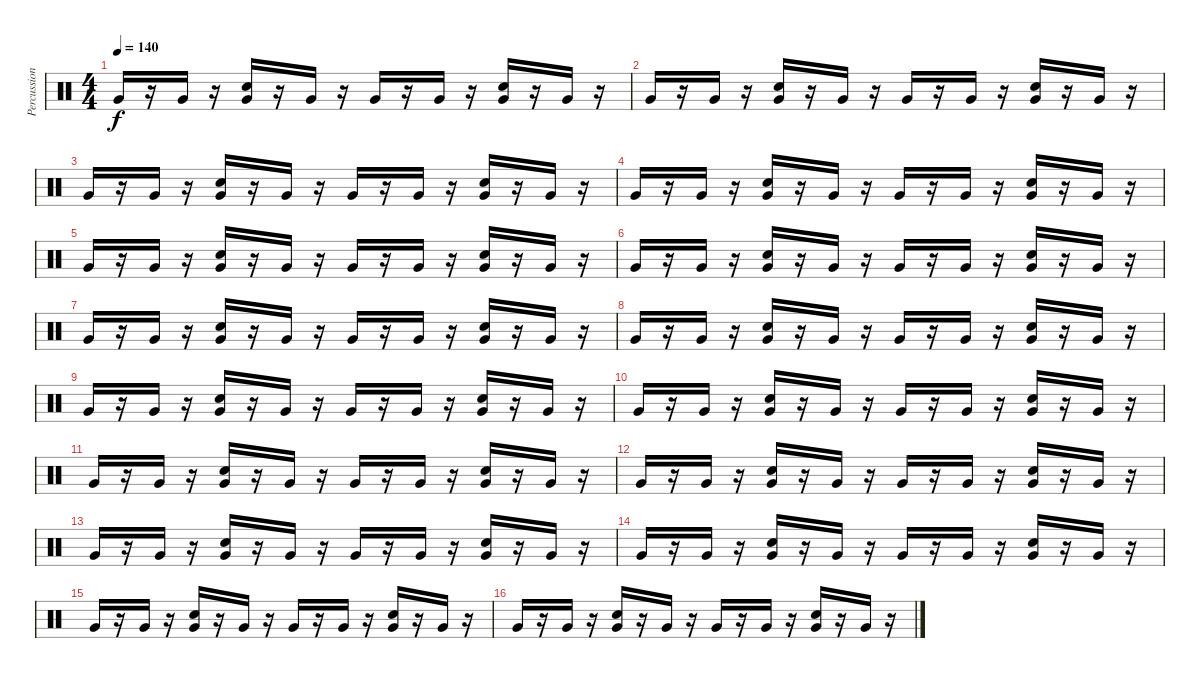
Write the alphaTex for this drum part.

\track ("Percussions" "Percussion") {instrument percussion}
\staff {score}
\articulation defaults
\ts (4 4)
\tempo 140
\clef neutral
\ks c "Very Low Tom (hit)".16{dy f}
r.16 "Very Low Tom (hit)".16 r.16 ("Very Low Tom (hit)" "Electric Snare (hit)").16 r.16 "Very Low Tom (hit)".16 r.16 "Very Low Tom (hit)".16 r.16 "Very Low Tom (hit)".16 r.16 ("Very Low Tom (hit)" "Electric Snare (hit)").16 r.16 "Very Low Tom (hit)".16 r.16 |
"Very Low Tom (hit)".16 r.16 "Very Low Tom (hit)".16 r.16 ("Very Low Tom (hit)" "Electric Snare (hit)").16 r.16 "Very Low Tom (hit)".16 r.16 "Very Low Tom (hit)".16 r.16 "Very Low Tom (hit)".16 r.16 ("Very Low Tom (hit)" "Electric Snare (hit)").16 r.16 "Very Low Tom (hit)".16 r.16 |
"Very Low Tom (hit)".16 r.16 "Very Low Tom (hit)".16 r.16 ("Very Low Tom (hit)" "Electric Snare (hit)").16 r.16 "Very Low Tom (hit)".16 r.16 "Very Low Tom (hit)".16 r.16 "Very Low Tom (hit)".16 r.16 ("Very Low Tom (hit)" "Electric Snare (hit)").16 r.16 "Very Low Tom (hit)".16 r.16 |
"Very Low Tom (hit)".16 r.16 "Very Low Tom (hit)".16 r.16 ("Very Low Tom (hit)" "Electric Snare (hit)").16 r.16 "Very Low Tom (hit)".16 r.16 "Very Low Tom (hit)".16 r.16 "Very Low Tom (hit)".16 r.16 ("Very Low Tom (hit)" "Electric Snare (hit)").16 r.16 "Very Low Tom (hit)".16 r.16 |
"Very Low Tom (hit)".16 r.16 "Very Low Tom (hit)".16 r.16 ("Very Low Tom (hit)" "Electric Snare (hit)").16 r.16 "Very Low Tom (hit)".16 r.16 "Very Low Tom (hit)".16 r.16 "Very Low Tom (hit)".16 r.16 ("Very Low Tom (hit)" "Electric Snare (hit)").16 r.16 "Very Low Tom (hit)".16 r.16 |
"Very Low Tom (hit)".16 r.16 "Very Low Tom (hit)".16 r.16 ("Very Low Tom (hit)" "Electric Snare (hit)").16 r.16 "Very Low Tom (hit)".16 r.16 "Very Low Tom (hit)".16 r.16 "Very Low Tom (hit)".16 r.16 ("Very Low Tom (hit)" "Electric Snare (hit)").16 r.16 "Very Low Tom (hit)".16 r.16 |
"Very Low Tom (hit)".16 r.16 "Very Low Tom (hit)".16 r.16 ("Very Low Tom (hit)" "Electric Snare (hit)").16 r.16 "Very Low Tom (hit)".16 r.16 "Very Low Tom (hit)".16 r.16 "Very Low Tom (hit)".16 r.16 ("Very Low Tom (hit)" "Electric Snare (hit)").16 r.16 "Very Low Tom (hit)".16 r.16 |
"Very Low Tom (hit)".16 r.16 "Very Low Tom (hit)".16 r.16 ("Very Low Tom (hit)" "Electric Snare (hit)").16 r.16 "Very Low Tom (hit)".16 r.16 "Very Low Tom (hit)".16 r.16 "Very Low Tom (hit)".16 r.16 ("Very Low Tom (hit)" "Electric Snare (hit)").16 r.16 "Very Low Tom (hit)".16 r.16 |
"Very Low Tom (hit)".16 r.16 "Very Low Tom (hit)".16 r.16 ("Very Low Tom (hit)" "Electric Snare (hit)").16 r.16 "Very Low Tom (hit)".16 r.16 "Very Low Tom (hit)".16 r.16 "Very Low Tom (hit)".16 r.16 ("Very Low Tom (hit)" "Electric Snare (hit)").16 r.16 "Very Low Tom (hit)".16 r.16 |
"Very Low Tom (hit)".16 r.16 "Very Low Tom (hit)".16 r.16 ("Very Low Tom (hit)" "Electric Snare (hit)").16 r.16 "Very Low Tom (hit)".16 r.16 "Very Low Tom (hit)".16 r.16 "Very Low Tom (hit)".16 r.16 ("Very Low Tom (hit)" "Electric Snare (hit)").16 r.16 "Very Low Tom (hit)".16 r.16 |
"Very Low Tom (hit)".16 r.16 "Very Low Tom (hit)".16 r.16 ("Very Low Tom (hit)" "Electric Snare (hit)").16 r.16 "Very Low Tom (hit)".16 r.16 "Very Low Tom (hit)".16 r.16 "Very Low Tom (hit)".16 r.16 ("Very Low Tom (hit)" "Electric Snare (hit)").16 r.16 "Very Low Tom (hit)".16 r.16 |
"Very Low Tom (hit)".16 r.16 "Very Low Tom (hit)".16 r.16 ("Very Low Tom (hit)" "Electric Snare (hit)").16 r.16 "Very Low Tom (hit)".16 r.16 "Very Low Tom (hit)".16 r.16 "Very Low Tom (hit)".16 r.16 ("Very Low Tom (hit)" "Electric Snare (hit)").16 r.16 "Very Low Tom (hit)".16 r.16 |
"Very Low Tom (hit)".16 r.16 "Very Low Tom (hit)".16 r.16 ("Very Low Tom (hit)" "Electric Snare (hit)").16 r.16 "Very Low Tom (hit)".16 r.16 "Very Low Tom (hit)".16 r.16 "Very Low Tom (hit)".16 r.16 ("Very Low Tom (hit)" "Electric Snare (hit)").16 r.16 "Very Low Tom (hit)".16 r.16 |
"Very Low Tom (hit)".16 r.16 "Very Low Tom (hit)".16 r.16 ("Very Low Tom (hit)" "Electric Snare (hit)").16 r.16 "Very Low Tom (hit)".16 r.16 "Very Low Tom (hit)".16 r.16 "Very Low Tom (hit)".16 r.16 ("Very Low Tom (hit)" "Electric Snare (hit)").16 r.16 "Very Low Tom (hit)".16 r.16 |
"Very Low Tom (hit)".16 r.16 "Very Low Tom (hit)".16 r.16 ("Very Low Tom (hit)" "Electric Snare (hit)").16 r.16 "Very Low Tom (hit)".16 r.16 "Very Low Tom (hit)".16 r.16 "Very Low Tom (hit)".16 r.16 ("Very Low Tom (hit)" "Electric Snare (hit)").16 r.16 "Very Low Tom (hit)".16 r.16 |
"Very Low Tom (hit)".16 r.16 "Very Low Tom (hit)".16 r.16 ("Very Low Tom (hit)" "Electric Snare (hit)").16 r.16 "Very Low Tom (hit)".16 r.16 "Very Low Tom (hit)".16 r.16 "Very Low Tom (hit)".16 r.16 ("Very Low Tom (hit)" "Electric Snare (hit)").16 r.16 "Very Low Tom (hit)".16 r.16
